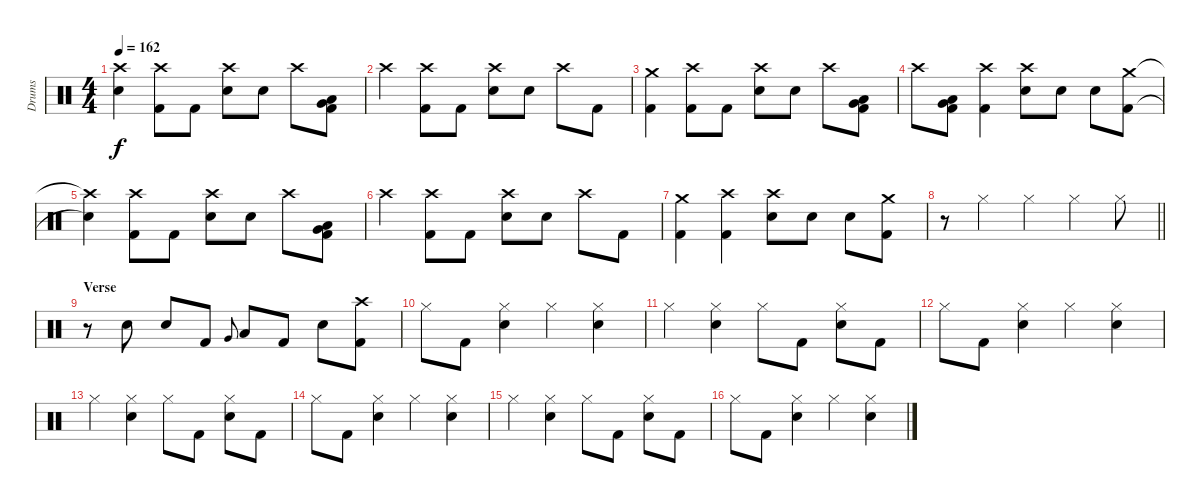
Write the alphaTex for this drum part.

\track ("Drums" "Drums") {instrument percussion}
\staff {score}
\articulation defaults
\ts (4 4)
\tempo 162
\clef neutral
\ks c
("Crash high (hit)"{t} "Snare (hit)"{t}).4{dy f} ("Crash high (hit)" "Kick (hit) 2").8 "Kick (hit) 2".8 ("Crash high (hit)" "Snare (hit) 2").8 "Snare (hit) 2".8 "Crash high (hit)".8 ("Low Tom (hit)" "Very Low Tom (hit)" "Kick (hit) 2").8 |
"Crash high (hit)".4 ("Crash high (hit)" "Kick (hit) 2").8 "Kick (hit) 2".8 ("Crash high (hit)" "Snare (hit) 2").8 "Snare (hit) 2".8 "Crash high (hit)".8 "Kick (hit) 2".8 |
("Crash medium (hit)" "Kick (hit) 2").4 ("Crash high (hit)" "Kick (hit) 2").8 "Kick (hit) 2".8 ("Crash high (hit)" "Snare (hit) 2").8 "Snare (hit) 2".8 "Crash high (hit)".8 ("Low Tom (hit)" "Very Low Tom (hit)" "Kick (hit) 2").8 |
"Crash high (hit)".8 ("Low Tom (hit)" "Very Low Tom (hit)" "Kick (hit) 2").8 ("Crash high (hit)" "Kick (hit) 2").4 ("Crash high (hit)" "Snare (hit) 2").8 "Snare (hit) 2".8 "Snare (hit) 2".8 ("Crash medium (hit)" "Kick (hit) 2").8 |
("Crash high (hit)"{t} "Snare (hit)"{t}).4 ("Crash high (hit)" "Kick (hit) 2").8 "Kick (hit) 2".8 ("Crash high (hit)" "Snare (hit) 2").8 "Snare (hit) 2".8 "Crash high (hit)".8 ("Low Tom (hit)" "Very Low Tom (hit)" "Kick (hit) 2").8 |
"Crash high (hit)".4 ("Crash high (hit)" "Kick (hit) 2").8 "Kick (hit) 2".8 ("Crash high (hit)" "Snare (hit) 2").8 "Snare (hit) 2".8 "Crash high (hit)".8 "Kick (hit) 2".8 |
("Crash medium (hit)" "Kick (hit) 2").4 ("Crash high (hit)" "Kick (hit) 2").4 ("Crash high (hit)" "Snare (hit) 2").8 "Snare (hit) 2".8 "Snare (hit) 2".8 ("Crash medium (hit)" "Kick (hit) 2").8 |
\barLineRight lightlight
r.8 "Hi-Hat (closed)".4 "Hi-Hat (closed)".4 "Hi-Hat (closed)".4 "Hi-Hat (closed)".8 |
\section ("" "Verse")
r.8 "Snare (hit) 2".8 "Snare (hit) 2".8 "Kick (hit) 2".8 "Very Low Tom (hit)".8{gr onbeat} "Low Tom (hit)".8 "Kick (hit) 2".8 "Snare (hit) 2".8 ("Crash high (hit)" "Kick (hit) 2").8 |
"Hi-Hat (closed)".8 "Kick (hit) 2".8 ("Snare (hit) 2" "Hi-Hat (closed)").4 "Hi-Hat (closed)".4 ("Snare (hit) 2" "Hi-Hat (closed)").4 |
"Hi-Hat (closed)".4 ("Snare (hit) 2" "Hi-Hat (closed)").4 "Hi-Hat (closed)".8 "Kick (hit) 2".8 ("Snare (hit) 2" "Hi-Hat (closed)").8 "Kick (hit) 2".8 |
"Hi-Hat (closed)".8 "Kick (hit) 2".8 ("Snare (hit) 2" "Hi-Hat (closed)").4 "Hi-Hat (closed)".4 ("Snare (hit) 2" "Hi-Hat (closed)").4 |
"Hi-Hat (closed)".4 ("Snare (hit) 2" "Hi-Hat (closed)").4 "Hi-Hat (closed)".8 "Kick (hit) 2".8 ("Snare (hit) 2" "Hi-Hat (closed)").8 "Kick (hit) 2".8 |
"Hi-Hat (closed)".8 "Kick (hit) 2".8 ("Snare (hit) 2" "Hi-Hat (closed)").4 "Hi-Hat (closed)".4 ("Snare (hit) 2" "Hi-Hat (closed)").4 |
"Hi-Hat (closed)".4 ("Snare (hit) 2" "Hi-Hat (closed)").4 "Hi-Hat (closed)".8 "Kick (hit) 2".8 ("Snare (hit) 2" "Hi-Hat (closed)").8 "Kick (hit) 2".8 |
"Hi-Hat (closed)".8 "Kick (hit) 2".8 ("Snare (hit) 2" "Hi-Hat (closed)").4 "Hi-Hat (closed)".4 ("Snare (hit) 2" "Hi-Hat (closed)").4
